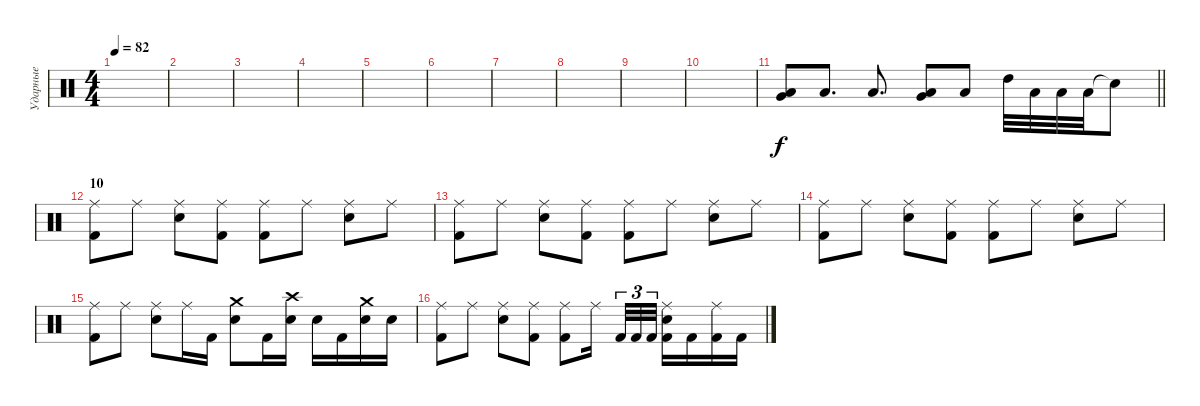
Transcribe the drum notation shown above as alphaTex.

\track ("Ударные" "Ударные") {mute instrument percussion}
\staff {score}
\articulation defaults
\ts (4 4)
\tempo 82
\clef neutral
\ks c
|
|
|
|
|
|
|
|
|
|
\barLineRight lightlight
("Low Tom (hit)" "Very Low Tom (hit)").8 "Low Floor Tom (hit)".8{d} "Low Floor Tom (hit)".8{d} ("Low Tom (hit)" "Very Low Tom (hit)").8 "Low Floor Tom (hit)".8 "High Tom (hit)".32 "Low Tom (hit)".32 "Low Tom (hit)".32 "Low Floor Tom (hit)".32 "Snare (hit)"{t}.8 |
\section ("" "10")
("Ride (middle)" "Kick (hit) 2").8 "Ride (middle)".8 ("Ride (middle)" "Electric Snare (hit)").8 ("Ride (middle)" "Kick (hit) 2").8 ("Ride (middle)" "Kick (hit) 2").8 "Ride (middle)".8 ("Ride (middle)" "Electric Snare (hit)").8 "Ride (middle)".8 |
("Ride (middle)" "Kick (hit) 2").8 "Ride (middle)".8 ("Ride (middle)" "Electric Snare (hit)").8 ("Ride (middle)" "Kick (hit) 2").8 ("Ride (middle)" "Kick (hit) 2").8 "Ride (middle)".8 ("Ride (middle)" "Electric Snare (hit)").8 "Ride (middle)".8 |
("Ride (middle)" "Kick (hit) 2").8 "Ride (middle)".8 ("Ride (middle)" "Electric Snare (hit)").8 ("Ride (middle)" "Kick (hit) 2").8 ("Ride (middle)" "Kick (hit) 2").8 "Ride (middle)".8 ("Ride (middle)" "Electric Snare (hit)").8 "Ride (middle)".8 |
("Ride (middle)" "Kick (hit) 2").8 "Ride (middle)".8 ("Ride (middle)" "Electric Snare (hit)").8 "Ride (middle)".16 "Kick (hit) 2".16 ("Crash medium (hit)" "Electric Snare (hit)").8 "Kick (hit) 2".16 ("Crash high (hit)" "Electric Snare (hit)").16 "Electric Snare (hit)".16 "Kick (hit) 2".16 ("Crash medium (hit)" "Electric Snare (hit)").16 "Electric Snare (hit)".16 |
("Ride (middle)" "Kick (hit) 2").8 "Ride (middle)".8 ("Ride (middle)" "Electric Snare (hit)").8 ("Ride (middle)" "Kick (hit) 2").8 ("Ride (middle)" "Kick (hit) 2").8 "Ride (middle)".16{beam splitsecondary} "Kick (hit) 2".32{tu (3 2)} "Kick (hit) 2".32{tu (3 2)} "Kick (hit) 2".32{tu (3 2)} ("Ride (middle)" "Electric Snare (hit)" "Kick (hit) 2").16 "Kick (hit) 2".16 ("Ride (middle)" "Kick (hit) 2").16 "Kick (hit) 2".16
